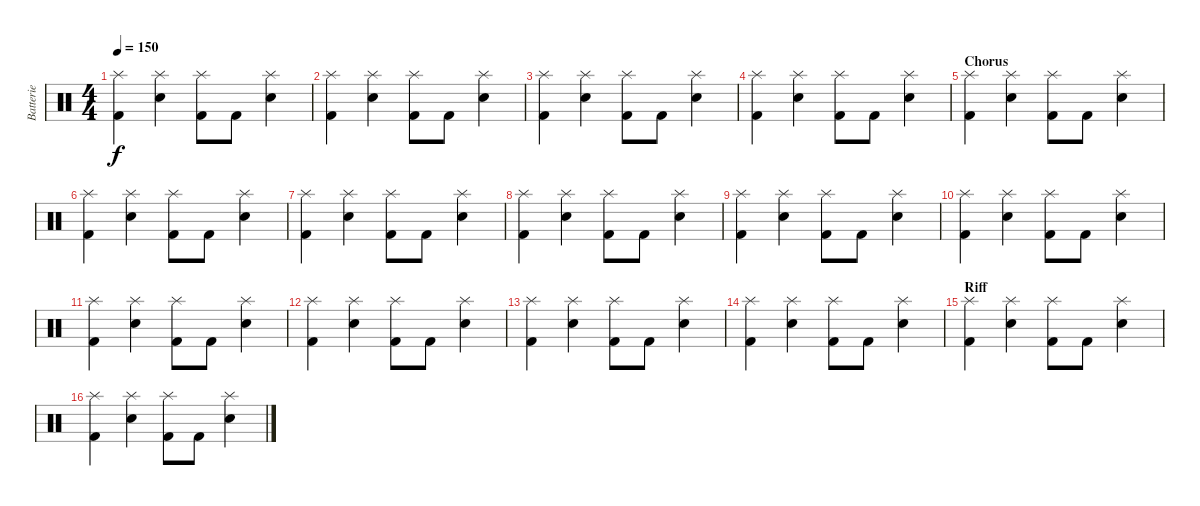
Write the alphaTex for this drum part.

\track ("Batterie" "Batterie") {instrument percussion}
\staff {score}
\articulation defaults
\ts (4 4)
\tempo 150
\clef neutral
\ks c
("Splash (hit)" "Kick (hit) 2").4{dy f} ("Splash (hit)" "Electric Snare (hit)").4 ("Splash (hit)" "Kick (hit) 2").8 "Kick (hit) 2".8 ("Splash (hit)" "Electric Snare (hit)").4 |
("Splash (hit)" "Kick (hit) 2").4 ("Splash (hit)" "Electric Snare (hit)").4 ("Splash (hit)" "Kick (hit) 2").8 "Kick (hit) 2".8 ("Splash (hit)" "Electric Snare (hit)").4 |
("Splash (hit)" "Kick (hit) 2").4 ("Splash (hit)" "Electric Snare (hit)").4 ("Splash (hit)" "Kick (hit) 2").8 "Kick (hit) 2".8 ("Splash (hit)" "Electric Snare (hit)").4 |
("Splash (hit)" "Kick (hit) 2").4 ("Splash (hit)" "Electric Snare (hit)").4 ("Splash (hit)" "Kick (hit) 2").8 "Kick (hit) 2".8 ("Splash (hit)" "Electric Snare (hit)").4 |
\section ("" "Chorus")
("Splash (hit)" "Kick (hit) 2").4 ("Splash (hit)" "Electric Snare (hit)").4 ("Splash (hit)" "Kick (hit) 2").8 "Kick (hit) 2".8 ("Splash (hit)" "Electric Snare (hit)").4 |
("Splash (hit)" "Kick (hit) 2").4 ("Splash (hit)" "Electric Snare (hit)").4 ("Splash (hit)" "Kick (hit) 2").8 "Kick (hit) 2".8 ("Splash (hit)" "Electric Snare (hit)").4 |
("Splash (hit)" "Kick (hit) 2").4 ("Splash (hit)" "Electric Snare (hit)").4 ("Splash (hit)" "Kick (hit) 2").8 "Kick (hit) 2".8 ("Splash (hit)" "Electric Snare (hit)").4 |
("Splash (hit)" "Kick (hit) 2").4 ("Splash (hit)" "Electric Snare (hit)").4 ("Splash (hit)" "Kick (hit) 2").8 "Kick (hit) 2".8 ("Splash (hit)" "Electric Snare (hit)").4 |
("Splash (hit)" "Kick (hit) 2").4 ("Splash (hit)" "Electric Snare (hit)").4 ("Splash (hit)" "Kick (hit) 2").8 "Kick (hit) 2".8 ("Splash (hit)" "Electric Snare (hit)").4 |
("Splash (hit)" "Kick (hit) 2").4 ("Splash (hit)" "Electric Snare (hit)").4 ("Splash (hit)" "Kick (hit) 2").8 "Kick (hit) 2".8 ("Splash (hit)" "Electric Snare (hit)").4 |
("Splash (hit)" "Kick (hit) 2").4 ("Splash (hit)" "Electric Snare (hit)").4 ("Splash (hit)" "Kick (hit) 2").8 "Kick (hit) 2".8 ("Splash (hit)" "Electric Snare (hit)").4 |
("Splash (hit)" "Kick (hit) 2").4 ("Splash (hit)" "Electric Snare (hit)").4 ("Splash (hit)" "Kick (hit) 2").8 "Kick (hit) 2".8 ("Splash (hit)" "Electric Snare (hit)").4 |
("Splash (hit)" "Kick (hit) 2").4 ("Splash (hit)" "Electric Snare (hit)").4 ("Splash (hit)" "Kick (hit) 2").8 "Kick (hit) 2".8 ("Splash (hit)" "Electric Snare (hit)").4 |
("Splash (hit)" "Kick (hit) 2").4 ("Splash (hit)" "Electric Snare (hit)").4 ("Splash (hit)" "Kick (hit) 2").8 "Kick (hit) 2".8 ("Splash (hit)" "Electric Snare (hit)").4 |
\section ("" "Riff")
("Splash (hit)" "Kick (hit) 2").4 ("Splash (hit)" "Electric Snare (hit)").4 ("Splash (hit)" "Kick (hit) 2").8 "Kick (hit) 2".8 ("Splash (hit)" "Electric Snare (hit)").4 |
("Splash (hit)" "Kick (hit) 2").4 ("Splash (hit)" "Electric Snare (hit)").4 ("Splash (hit)" "Kick (hit) 2").8 "Kick (hit) 2".8 ("Splash (hit)" "Electric Snare (hit)").4
